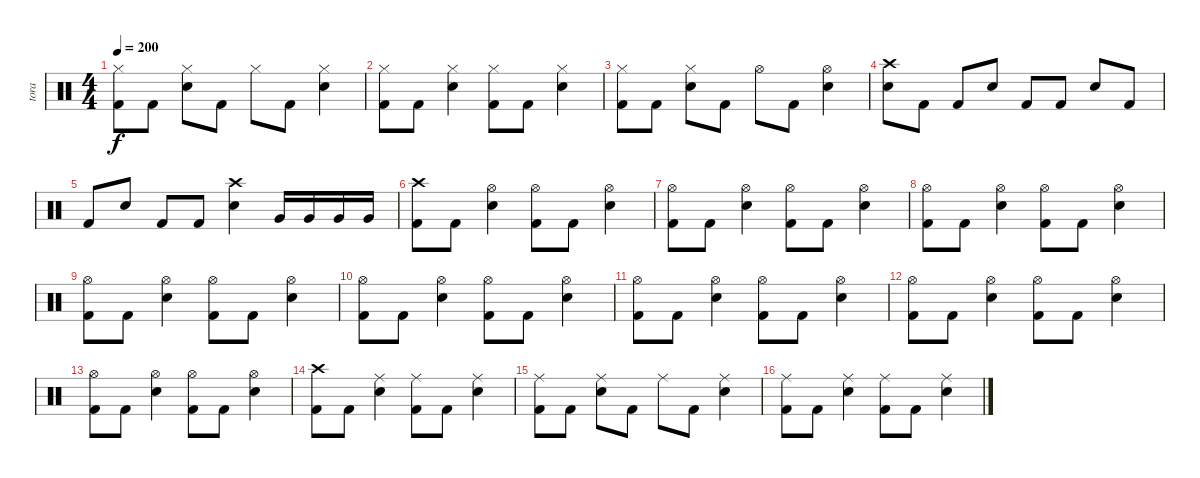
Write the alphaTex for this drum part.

\track ("tora" "tora") {instrument percussion}
\staff {score}
\articulation defaults
\ts (4 4)
\tempo 200
\clef neutral
\ks c
("Hi-Hat (closed)" "Kick (hit) 2").8{dy f} "Kick (hit) 2".8 ("Hi-Hat (closed)" "Snare (hit) 2").8 "Kick (hit) 2".8 "Hi-Hat (closed)".8 "Kick (hit) 2".8 ("Hi-Hat (closed)" "Snare (hit) 2").4 |
("Hi-Hat (closed)" "Kick (hit) 2").8 "Kick (hit) 2".8 ("Hi-Hat (closed)" "Snare (hit) 2").4 ("Hi-Hat (closed)" "Kick (hit) 2").8 "Kick (hit) 2".8 ("Hi-Hat (closed)" "Snare (hit) 2").4 |
("Hi-Hat (closed)" "Kick (hit) 2").8 "Kick (hit) 2".8 ("Hi-Hat (closed)" "Snare (hit) 2").8 "Kick (hit) 2".8 "Hi-Hat (open)".8 "Kick (hit) 2".8 ("Hi-Hat (open)" "Snare (hit) 2").4 |
("Crash high (hit)" "Snare (hit) 2").8 "Kick (hit) 2".8 "Kick (hit) 2".8 "Snare (hit) 2".8 "Kick (hit) 2".8 "Kick (hit) 2".8 "Snare (hit) 2".8 "Kick (hit) 2".8 |
"Kick (hit) 2".8 "Snare (hit) 2".8 "Kick (hit) 2".8 "Kick (hit) 2".8 ("Crash high (hit)" "Snare (hit) 2").4 "Very Low Tom (hit)".16 "Very Low Tom (hit)".16 "Very Low Tom (hit)".16 "Very Low Tom (hit)".16 |
("Crash high (hit)" "Kick (hit) 2").8 "Kick (hit) 2".8 ("Hi-Hat (open)" "Snare (hit) 2").4 ("Hi-Hat (open)" "Kick (hit) 2").8 "Kick (hit) 2".8 ("Hi-Hat (open)" "Snare (hit) 2").4 |
("Hi-Hat (open)" "Kick (hit) 2").8 "Kick (hit) 2".8 ("Hi-Hat (open)" "Snare (hit) 2").4 ("Hi-Hat (open)" "Kick (hit) 2").8 "Kick (hit) 2".8 ("Hi-Hat (open)" "Snare (hit) 2").4 |
("Hi-Hat (open)" "Kick (hit) 2").8 "Kick (hit) 2".8 ("Hi-Hat (open)" "Snare (hit) 2").4 ("Hi-Hat (open)" "Kick (hit) 2").8 "Kick (hit) 2".8 ("Hi-Hat (open)" "Snare (hit) 2").4 |
("Hi-Hat (open)" "Kick (hit) 2").8 "Kick (hit) 2".8 ("Hi-Hat (open)" "Snare (hit) 2").4 ("Hi-Hat (open)" "Kick (hit) 2").8 "Kick (hit) 2".8 ("Hi-Hat (open)" "Snare (hit) 2").4 |
("Hi-Hat (open)" "Kick (hit) 2").8 "Kick (hit) 2".8 ("Hi-Hat (open)" "Snare (hit) 2").4 ("Hi-Hat (open)" "Kick (hit) 2").8 "Kick (hit) 2".8 ("Hi-Hat (open)" "Snare (hit) 2").4 |
("Hi-Hat (open)" "Kick (hit) 2").8 "Kick (hit) 2".8 ("Hi-Hat (open)" "Snare (hit) 2").4 ("Hi-Hat (open)" "Kick (hit) 2").8 "Kick (hit) 2".8 ("Hi-Hat (open)" "Snare (hit) 2").4 |
("Hi-Hat (open)" "Kick (hit) 2").8 "Kick (hit) 2".8 ("Hi-Hat (open)" "Snare (hit) 2").4 ("Hi-Hat (open)" "Kick (hit) 2").8 "Kick (hit) 2".8 ("Hi-Hat (open)" "Snare (hit) 2").4 |
("Hi-Hat (open)" "Kick (hit) 2").8 "Kick (hit) 2".8 ("Hi-Hat (open)" "Snare (hit) 2").4 ("Hi-Hat (open)" "Kick (hit) 2").8 "Kick (hit) 2".8 ("Hi-Hat (open)" "Snare (hit) 2").4 |
("Crash high (hit)" "Kick (hit) 2").8 "Kick (hit) 2".8 ("Ride (middle)" "Snare (hit) 2").4 ("Ride (middle)" "Kick (hit) 2").8 "Kick (hit) 2".8 ("Ride (middle)" "Snare (hit) 2").4 |
("Ride (middle)" "Kick (hit) 2").8 "Kick (hit) 2".8 ("Ride (middle)" "Snare (hit) 2").8 "Kick (hit) 2".8 "Ride (middle)".8 "Kick (hit) 2".8 ("Ride (middle)" "Snare (hit) 2").4 |
("Ride (middle)" "Kick (hit) 2").8 "Kick (hit) 2".8 ("Ride (middle)" "Snare (hit) 2").4 ("Ride (middle)" "Kick (hit) 2").8 "Kick (hit) 2".8 ("Ride (middle)" "Snare (hit) 2").4
